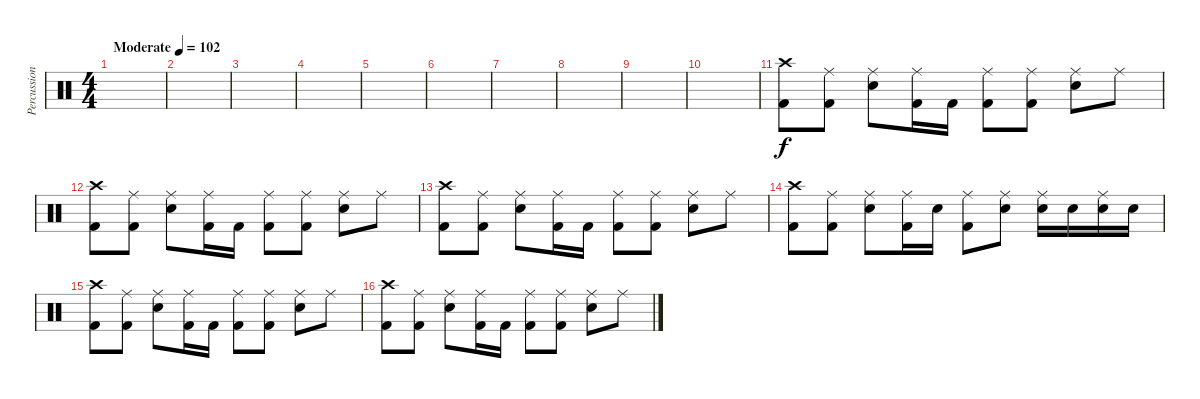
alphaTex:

\track ("Percussion" "Percussion") {instrument percussion}
\staff {score}
\articulation defaults
\ts (4 4)
\tempo (102 "Moderate")
\clef neutral
\ks c
|
|
|
|
|
|
|
|
|
|
("Crash high (hit)" "Kick (hit) 2").8 ("Ride (middle)" "Kick (hit) 2").8 ("Ride (middle)" "Snare (hit) 2").8 ("Ride (middle)" "Kick (hit) 2").16 "Kick (hit) 2".16 ("Ride (middle)" "Kick (hit) 2").8 ("Ride (middle)" "Kick (hit) 2").8 ("Ride (middle)" "Snare (hit) 2").8 "Ride (middle)".8 |
("Crash high (hit)" "Kick (hit) 2").8 ("Ride (middle)" "Kick (hit) 2").8 ("Ride (middle)" "Snare (hit) 2").8 ("Ride (middle)" "Kick (hit) 2").16 "Kick (hit) 2".16 ("Ride (middle)" "Kick (hit) 2").8 ("Ride (middle)" "Kick (hit) 2").8 ("Ride (middle)" "Snare (hit) 2").8 "Ride (middle)".8 |
("Crash high (hit)" "Kick (hit) 2").8 ("Ride (middle)" "Kick (hit) 2").8 ("Ride (middle)" "Snare (hit) 2").8 ("Ride (middle)" "Kick (hit) 2").16 "Kick (hit) 2".16 ("Ride (middle)" "Kick (hit) 2").8 ("Ride (middle)" "Kick (hit) 2").8 ("Ride (middle)" "Snare (hit) 2").8 "Ride (middle)".8 |
("Crash high (hit)" "Kick (hit) 2").8 ("Ride (middle)" "Kick (hit) 2").8 ("Ride (middle)" "Snare (hit) 2").8 ("Ride (middle)" "Kick (hit) 2").16 "Snare (hit) 2".16 ("Ride (middle)" "Kick (hit) 2").8 ("Ride (middle)" "Snare (hit) 2").8 ("Ride (middle)" "Snare (hit) 2").16 "Snare (hit) 2".16 ("Ride (middle)" "Snare (hit) 2").16 "Snare (hit) 2".16 |
("Crash high (hit)" "Kick (hit) 2").8 ("Ride (middle)" "Kick (hit) 2").8 ("Ride (middle)" "Snare (hit) 2").8 ("Ride (middle)" "Kick (hit) 2").16 "Kick (hit) 2".16 ("Ride (middle)" "Kick (hit) 2").8 ("Ride (middle)" "Kick (hit) 2").8 ("Ride (middle)" "Snare (hit) 2").8 "Ride (middle)".8 |
("Crash high (hit)" "Kick (hit) 2").8 ("Ride (middle)" "Kick (hit) 2").8 ("Ride (middle)" "Snare (hit) 2").8 ("Ride (middle)" "Kick (hit) 2").16 "Kick (hit) 2".16 ("Ride (middle)" "Kick (hit) 2").8 ("Ride (middle)" "Kick (hit) 2").8 ("Ride (middle)" "Snare (hit) 2").8 "Ride (middle)".8
